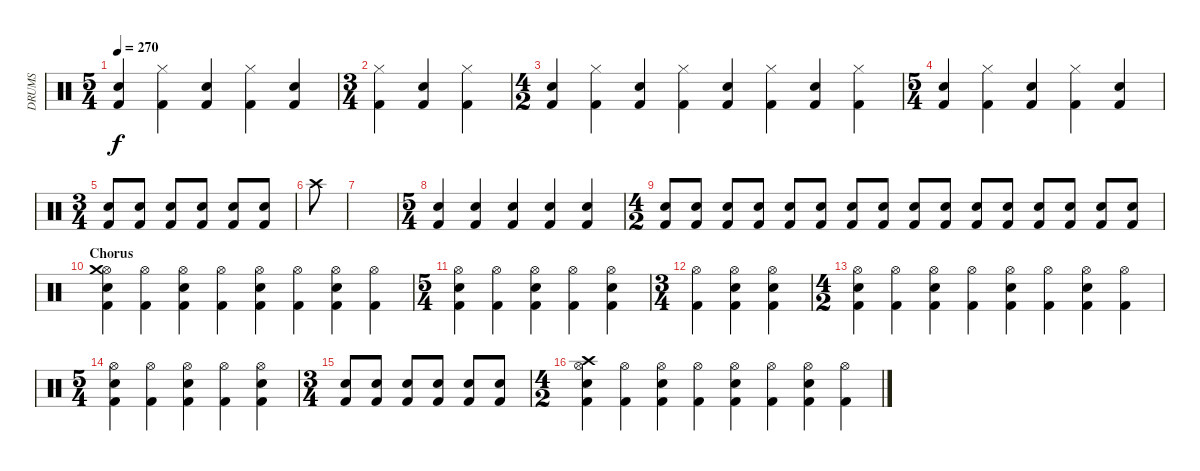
\track ("DRUMS" "DRUMS") {instrument percussion}
\staff {score}
\articulation defaults
\ts (5 4)
\tempo 270
\clef neutral
\ks c
("Snare (hit) 2" "Kick (hit) 2").4{dy f} ("Hi-Hat (closed)" "Kick (hit) 2").4 ("Snare (hit) 2" "Kick (hit) 2").4 ("Hi-Hat (closed)" "Kick (hit) 2").4 ("Snare (hit) 2" "Kick (hit) 2").4 |
\ts (3 4)
("Hi-Hat (closed)" "Kick (hit) 2").4 ("Snare (hit) 2" "Kick (hit) 2").4 ("Hi-Hat (closed)" "Kick (hit) 2").4 |
\ts (4 2)
("Snare (hit) 2" "Kick (hit) 2").4 ("Hi-Hat (closed)" "Kick (hit) 2").4 ("Snare (hit) 2" "Kick (hit) 2").4 ("Hi-Hat (closed)" "Kick (hit) 2").4 ("Snare (hit) 2" "Kick (hit) 2").4 ("Hi-Hat (closed)" "Kick (hit) 2").4 ("Snare (hit) 2" "Kick (hit) 2").4 ("Hi-Hat (closed)" "Kick (hit) 2").4 |
\ts (5 4)
("Snare (hit) 2" "Kick (hit) 2").4 ("Hi-Hat (closed)" "Kick (hit) 2").4 ("Snare (hit) 2" "Kick (hit) 2").4 ("Hi-Hat (closed)" "Kick (hit) 2").4 ("Snare (hit) 2" "Kick (hit) 2").4 |
\ts (3 4)
("Snare (hit) 2" "Kick (hit) 2").8 ("Snare (hit) 2" "Kick (hit) 2").8 ("Snare (hit) 2" "Kick (hit) 2").8 ("Snare (hit) 2" "Kick (hit) 2").8 ("Snare (hit) 2" "Kick (hit) 2").8 ("Snare (hit) 2" "Kick (hit) 2").8 |
"Crash high (hit)".8 |
|
\ts (5 4)
("Snare (hit) 2" "Kick (hit) 2").4 ("Snare (hit) 2" "Kick (hit) 2").4 ("Snare (hit) 2" "Kick (hit) 2").4 ("Snare (hit) 2" "Kick (hit) 2").4 ("Snare (hit) 2" "Kick (hit) 2").4 |
\ts (4 2)
("Snare (hit) 2" "Kick (hit) 2").8 ("Snare (hit) 2" "Kick (hit) 2").8 ("Snare (hit) 2" "Kick (hit) 2").8 ("Snare (hit) 2" "Kick (hit) 2").8 ("Snare (hit) 2" "Kick (hit) 2").8 ("Snare (hit) 2" "Kick (hit) 2").8 ("Snare (hit) 2" "Kick (hit) 2").8 ("Snare (hit) 2" "Kick (hit) 2").8 ("Snare (hit) 2" "Kick (hit) 2").8 ("Snare (hit) 2" "Kick (hit) 2").8 ("Snare (hit) 2" "Kick (hit) 2").8 ("Snare (hit) 2" "Kick (hit) 2").8 ("Snare (hit) 2" "Kick (hit) 2").8 ("Snare (hit) 2" "Kick (hit) 2").8 ("Snare (hit) 2" "Kick (hit) 2").8 ("Snare (hit) 2" "Kick (hit) 2").8 |
\section ("" "Chorus")
("Hi-Hat (open)" "Snare (hit) 2" "Crash medium (hit)" "Kick (hit) 2").4 ("Hi-Hat (open)" "Kick (hit) 2").4 ("Hi-Hat (open)" "Snare (hit) 2" "Kick (hit) 2").4 ("Hi-Hat (open)" "Kick (hit) 2").4 ("Hi-Hat (open)" "Snare (hit) 2" "Kick (hit) 2").4 ("Hi-Hat (open)" "Kick (hit) 2").4 ("Hi-Hat (open)" "Snare (hit) 2" "Kick (hit) 2").4 ("Hi-Hat (open)" "Kick (hit) 2").4 |
\ts (5 4)
("Hi-Hat (open)" "Snare (hit) 2" "Kick (hit) 2").4 ("Hi-Hat (open)" "Kick (hit) 2").4 ("Hi-Hat (open)" "Snare (hit) 2" "Kick (hit) 2").4 ("Hi-Hat (open)" "Kick (hit) 2").4 ("Hi-Hat (open)" "Snare (hit) 2" "Kick (hit) 2").4 |
\ts (3 4)
("Hi-Hat (open)" "Kick (hit) 2").4 ("Hi-Hat (open)" "Snare (hit) 2" "Kick (hit) 2").4 ("Hi-Hat (open)" "Snare (hit) 2" "Kick (hit) 2").4 |
\ts (4 2)
("Hi-Hat (open)" "Snare (hit) 2" "Kick (hit) 2").4 ("Hi-Hat (open)" "Kick (hit) 2").4 ("Hi-Hat (open)" "Snare (hit) 2" "Kick (hit) 2").4 ("Hi-Hat (open)" "Kick (hit) 2").4 ("Hi-Hat (open)" "Snare (hit) 2" "Kick (hit) 2").4 ("Hi-Hat (open)" "Kick (hit) 2").4 ("Hi-Hat (open)" "Snare (hit) 2" "Kick (hit) 2").4 ("Hi-Hat (open)" "Kick (hit) 2").4 |
\ts (5 4)
("Hi-Hat (open)" "Snare (hit) 2" "Kick (hit) 2").4 ("Hi-Hat (open)" "Kick (hit) 2").4 ("Hi-Hat (open)" "Snare (hit) 2" "Kick (hit) 2").4 ("Hi-Hat (open)" "Kick (hit) 2").4 ("Hi-Hat (open)" "Snare (hit) 2" "Kick (hit) 2").4 |
\ts (3 4)
("Snare (hit) 2" "Kick (hit) 2").8 ("Snare (hit) 2" "Kick (hit) 2").8 ("Snare (hit) 2" "Kick (hit) 2").8 ("Snare (hit) 2" "Kick (hit) 2").8 ("Snare (hit) 2" "Kick (hit) 2").8 ("Snare (hit) 2" "Kick (hit) 2").8 |
\ts (4 2)
("Hi-Hat (open)" "Snare (hit) 2" "Crash high (hit)" "Kick (hit) 2").4 ("Hi-Hat (open)" "Kick (hit) 2").4 ("Hi-Hat (open)" "Snare (hit) 2" "Kick (hit) 2").4 ("Hi-Hat (open)" "Kick (hit) 2").4 ("Hi-Hat (open)" "Snare (hit) 2" "Kick (hit) 2").4 ("Hi-Hat (open)" "Kick (hit) 2").4 ("Hi-Hat (open)" "Snare (hit) 2" "Kick (hit) 2").4 ("Hi-Hat (open)" "Kick (hit) 2").4
